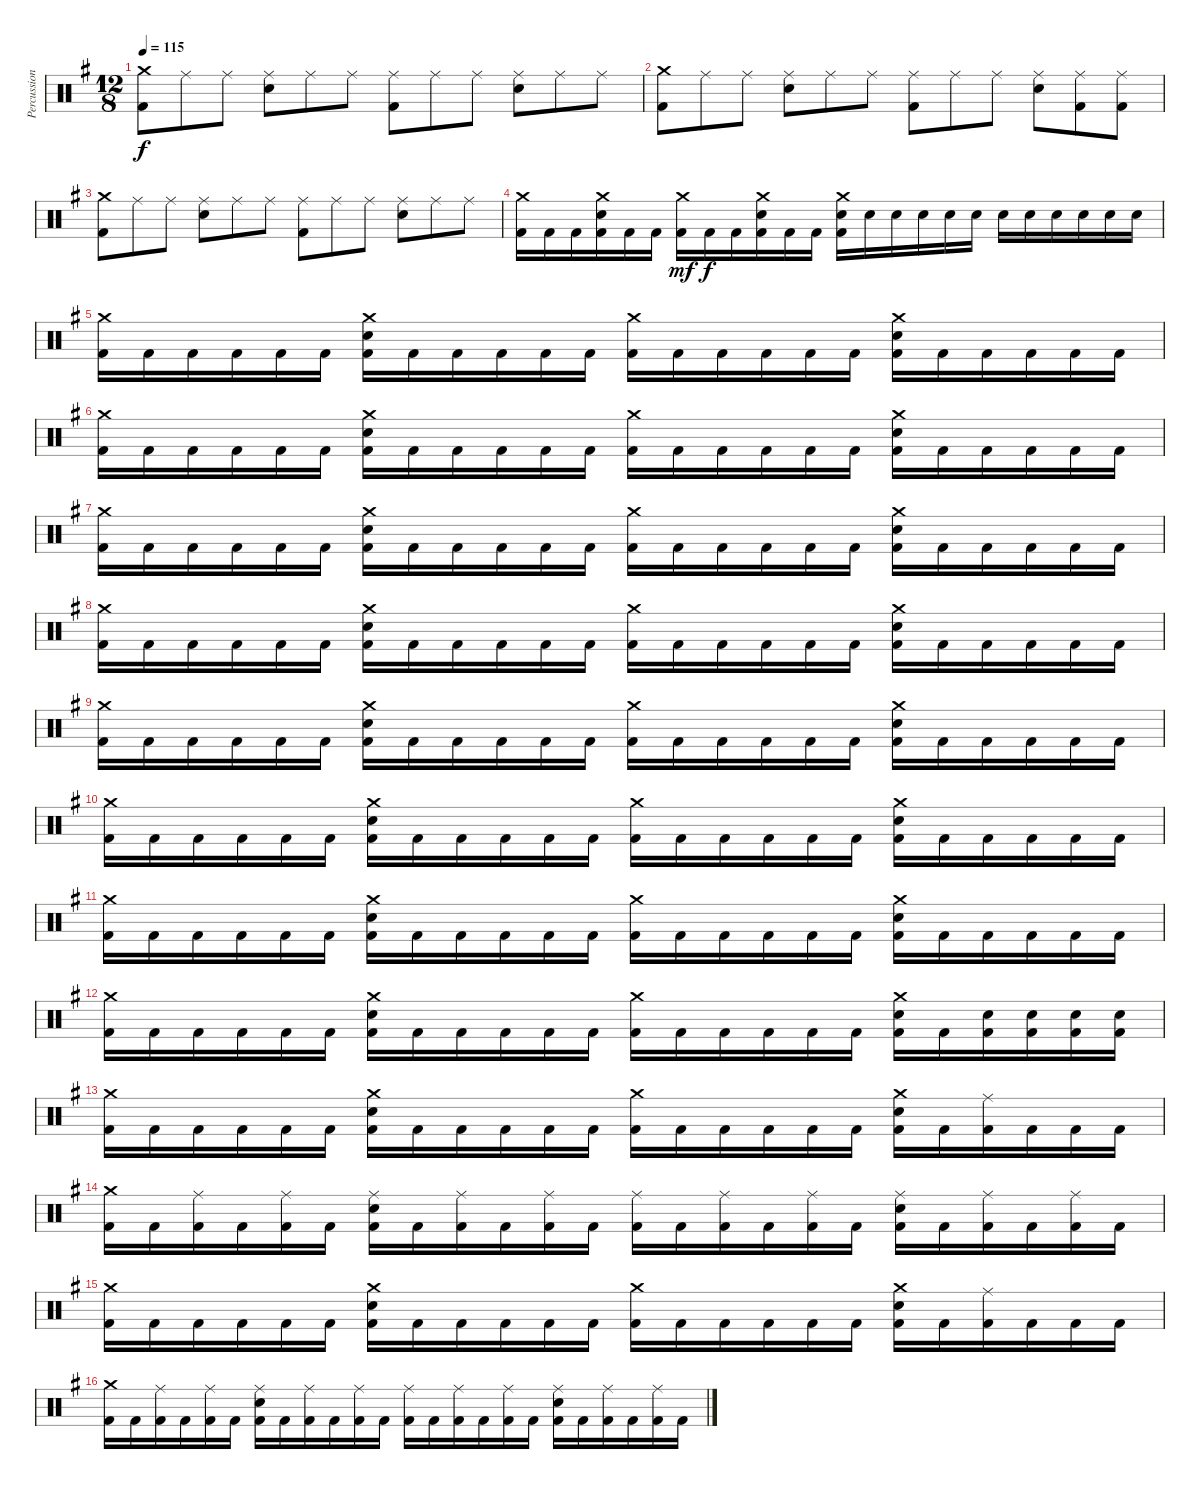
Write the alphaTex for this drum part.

\track ("Percussion" "Percussion") {instrument percussion}
\staff {score}
\articulation defaults
\ts (12 8)
\tempo 115
\clef neutral
\ks g
("Crash medium (hit)" "Kick (hit) 2").8{dy f} "Ride (middle)".8 "Ride (middle)".8 ("Ride (middle)" "Snare (hit) 2").8 "Ride (middle)".8 "Ride (middle)".8 ("Ride (middle)" "Kick (hit) 2").8 "Ride (middle)".8 "Ride (middle)".8 ("Ride (middle)" "Snare (hit) 2").8 "Ride (middle)".8 "Ride (middle)".8 |
("Crash medium (hit)" "Kick (hit) 2").8 "Ride (middle)".8 "Ride (middle)".8 ("Ride (middle)" "Snare (hit) 2").8 "Ride (middle)".8 "Ride (middle)".8 ("Ride (middle)" "Kick (hit) 2").8 "Ride (middle)".8 "Ride (middle)".8 ("Ride (middle)" "Snare (hit) 2").8 ("Ride (middle)" "Kick (hit) 2").8 ("Ride (middle)" "Kick (hit) 2").8 |
("Crash medium (hit)" "Kick (hit) 2").8 "Ride (middle)".8 "Ride (middle)".8 ("Ride (middle)" "Snare (hit) 2").8 "Ride (middle)".8 "Ride (middle)".8 ("Ride (middle)" "Kick (hit) 2").8 "Ride (middle)".8 "Ride (middle)".8 ("Ride (middle)" "Snare (hit) 2").8 "Ride (middle)".8 "Ride (middle)".8 |
("Crash medium (hit)" "Kick (hit) 2").16 "Kick (hit) 2".16 "Kick (hit) 2".16 ("Crash medium (hit)" "Snare (hit) 2" "Kick (hit) 2").16 "Kick (hit) 2".16 "Kick (hit) 2".16 ("Crash medium (hit)" "Kick (hit) 2").16{dy mf} "Kick (hit) 2".16{dy f} "Kick (hit) 2".16 ("Crash medium (hit)" "Snare (hit) 2" "Kick (hit) 2").16 "Kick (hit) 2".16 "Kick (hit) 2".16 ("Crash medium (hit)" "Snare (hit) 2" "Kick (hit) 2").16 "Snare (hit) 2".16 "Snare (hit) 2".16 "Snare (hit) 2".16 "Snare (hit) 2".16 "Snare (hit) 2".16 "Snare (hit) 2".16 "Snare (hit) 2".16 "Snare (hit) 2".16 "Snare (hit) 2".16 "Snare (hit) 2".16 "Snare (hit) 2".16 |
("Crash medium (hit)" "Kick (hit) 2").16 "Kick (hit) 2".16 "Kick (hit) 2".16 "Kick (hit) 2".16 "Kick (hit) 2".16 "Kick (hit) 2".16 ("Crash medium (hit)" "Snare (hit) 2" "Kick (hit) 2").16 "Kick (hit) 2".16 "Kick (hit) 2".16 "Kick (hit) 2".16 "Kick (hit) 2".16 "Kick (hit) 2".16 ("Crash medium (hit)" "Kick (hit) 2").16 "Kick (hit) 2".16 "Kick (hit) 2".16 "Kick (hit) 2".16 "Kick (hit) 2".16 "Kick (hit) 2".16 ("Crash medium (hit)" "Snare (hit) 2" "Kick (hit) 2").16 "Kick (hit) 2".16 "Kick (hit) 2".16 "Kick (hit) 2".16 "Kick (hit) 2".16 "Kick (hit) 2".16 |
("Crash medium (hit)" "Kick (hit) 2").16 "Kick (hit) 2".16 "Kick (hit) 2".16 "Kick (hit) 2".16 "Kick (hit) 2".16 "Kick (hit) 2".16 ("Crash medium (hit)" "Snare (hit) 2" "Kick (hit) 2").16 "Kick (hit) 2".16 "Kick (hit) 2".16 "Kick (hit) 2".16 "Kick (hit) 2".16 "Kick (hit) 2".16 ("Crash medium (hit)" "Kick (hit) 2").16 "Kick (hit) 2".16 "Kick (hit) 2".16 "Kick (hit) 2".16 "Kick (hit) 2".16 "Kick (hit) 2".16 ("Crash medium (hit)" "Snare (hit) 2" "Kick (hit) 2").16 "Kick (hit) 2".16 "Kick (hit) 2".16 "Kick (hit) 2".16 "Kick (hit) 2".16 "Kick (hit) 2".16 |
("Crash medium (hit)" "Kick (hit) 2").16 "Kick (hit) 2".16 "Kick (hit) 2".16 "Kick (hit) 2".16 "Kick (hit) 2".16 "Kick (hit) 2".16 ("Crash medium (hit)" "Snare (hit) 2" "Kick (hit) 2").16 "Kick (hit) 2".16 "Kick (hit) 2".16 "Kick (hit) 2".16 "Kick (hit) 2".16 "Kick (hit) 2".16 ("Crash medium (hit)" "Kick (hit) 2").16 "Kick (hit) 2".16 "Kick (hit) 2".16 "Kick (hit) 2".16 "Kick (hit) 2".16 "Kick (hit) 2".16 ("Crash medium (hit)" "Snare (hit) 2" "Kick (hit) 2").16 "Kick (hit) 2".16 "Kick (hit) 2".16 "Kick (hit) 2".16 "Kick (hit) 2".16 "Kick (hit) 2".16 |
("Crash medium (hit)" "Kick (hit) 2").16 "Kick (hit) 2".16 "Kick (hit) 2".16 "Kick (hit) 2".16 "Kick (hit) 2".16 "Kick (hit) 2".16 ("Crash medium (hit)" "Snare (hit) 2" "Kick (hit) 2").16 "Kick (hit) 2".16 "Kick (hit) 2".16 "Kick (hit) 2".16 "Kick (hit) 2".16 "Kick (hit) 2".16 ("Crash medium (hit)" "Kick (hit) 2").16 "Kick (hit) 2".16 "Kick (hit) 2".16 "Kick (hit) 2".16 "Kick (hit) 2".16 "Kick (hit) 2".16 ("Crash medium (hit)" "Snare (hit) 2" "Kick (hit) 2").16 "Kick (hit) 2".16 "Kick (hit) 2".16 "Kick (hit) 2".16 "Kick (hit) 2".16 "Kick (hit) 2".16 |
("Crash medium (hit)" "Kick (hit) 2").16 "Kick (hit) 2".16 "Kick (hit) 2".16 "Kick (hit) 2".16 "Kick (hit) 2".16 "Kick (hit) 2".16 ("Crash medium (hit)" "Snare (hit) 2" "Kick (hit) 2").16 "Kick (hit) 2".16 "Kick (hit) 2".16 "Kick (hit) 2".16 "Kick (hit) 2".16 "Kick (hit) 2".16 ("Crash medium (hit)" "Kick (hit) 2").16 "Kick (hit) 2".16 "Kick (hit) 2".16 "Kick (hit) 2".16 "Kick (hit) 2".16 "Kick (hit) 2".16 ("Crash medium (hit)" "Snare (hit) 2" "Kick (hit) 2").16 "Kick (hit) 2".16 "Kick (hit) 2".16 "Kick (hit) 2".16 "Kick (hit) 2".16 "Kick (hit) 2".16 |
("Crash medium (hit)" "Kick (hit) 2").16 "Kick (hit) 2".16 "Kick (hit) 2".16 "Kick (hit) 2".16 "Kick (hit) 2".16 "Kick (hit) 2".16 ("Crash medium (hit)" "Snare (hit) 2" "Kick (hit) 2").16 "Kick (hit) 2".16 "Kick (hit) 2".16 "Kick (hit) 2".16 "Kick (hit) 2".16 "Kick (hit) 2".16 ("Crash medium (hit)" "Kick (hit) 2").16 "Kick (hit) 2".16 "Kick (hit) 2".16 "Kick (hit) 2".16 "Kick (hit) 2".16 "Kick (hit) 2".16 ("Crash medium (hit)" "Snare (hit) 2" "Kick (hit) 2").16 "Kick (hit) 2".16 "Kick (hit) 2".16 "Kick (hit) 2".16 "Kick (hit) 2".16 "Kick (hit) 2".16 |
("Crash medium (hit)" "Kick (hit) 2").16 "Kick (hit) 2".16 "Kick (hit) 2".16 "Kick (hit) 2".16 "Kick (hit) 2".16 "Kick (hit) 2".16 ("Crash medium (hit)" "Snare (hit) 2" "Kick (hit) 2").16 "Kick (hit) 2".16 "Kick (hit) 2".16 "Kick (hit) 2".16 "Kick (hit) 2".16 "Kick (hit) 2".16 ("Crash medium (hit)" "Kick (hit) 2").16 "Kick (hit) 2".16 "Kick (hit) 2".16 "Kick (hit) 2".16 "Kick (hit) 2".16 "Kick (hit) 2".16 ("Crash medium (hit)" "Snare (hit) 2" "Kick (hit) 2").16 "Kick (hit) 2".16 "Kick (hit) 2".16 "Kick (hit) 2".16 "Kick (hit) 2".16 "Kick (hit) 2".16 |
("Crash medium (hit)" "Kick (hit) 2").16 "Kick (hit) 2".16 "Kick (hit) 2".16 "Kick (hit) 2".16 "Kick (hit) 2".16 "Kick (hit) 2".16 ("Crash medium (hit)" "Snare (hit) 2" "Kick (hit) 2").16 "Kick (hit) 2".16 "Kick (hit) 2".16 "Kick (hit) 2".16 "Kick (hit) 2".16 "Kick (hit) 2".16 ("Crash medium (hit)" "Kick (hit) 2").16 "Kick (hit) 2".16 "Kick (hit) 2".16 "Kick (hit) 2".16 "Kick (hit) 2".16 "Kick (hit) 2".16 ("Crash medium (hit)" "Snare (hit) 2" "Kick (hit) 2").16 "Kick (hit) 2".16 ("Electric Snare (hit)" "Kick (hit) 2").16 ("Electric Snare (hit)" "Kick (hit) 2").16 ("Electric Snare (hit)" "Kick (hit) 2").16 ("Electric Snare (hit)" "Kick (hit) 2").16 |
("Crash medium (hit)" "Kick (hit) 2").16 "Kick (hit) 2".16 "Kick (hit) 2".16 "Kick (hit) 2".16 "Kick (hit) 2".16 "Kick (hit) 2".16 ("Crash medium (hit)" "Snare (hit) 2" "Kick (hit) 2").16 "Kick (hit) 2".16 "Kick (hit) 2".16 "Kick (hit) 2".16 "Kick (hit) 2".16 "Kick (hit) 2".16 ("Crash medium (hit)" "Kick (hit) 2").16 "Kick (hit) 2".16 "Kick (hit) 2".16 "Kick (hit) 2".16 "Kick (hit) 2".16 "Kick (hit) 2".16 ("Crash medium (hit)" "Snare (hit) 2" "Kick (hit) 2").16 "Kick (hit) 2".16 ("Ride (middle)" "Kick (hit) 2").16 "Kick (hit) 2".16 "Kick (hit) 2".16 "Kick (hit) 2".16 |
("Crash medium (hit)" "Kick (hit) 2").16 "Kick (hit) 2".16 ("Ride (middle)" "Kick (hit) 2").16 "Kick (hit) 2".16 ("Ride (middle)" "Kick (hit) 2").16 "Kick (hit) 2".16 ("Ride (middle)" "Snare (hit) 2" "Kick (hit) 2").16 "Kick (hit) 2".16 ("Ride (middle)" "Kick (hit) 2").16 "Kick (hit) 2".16 ("Ride (middle)" "Kick (hit) 2").16 "Kick (hit) 2".16 ("Ride (middle)" "Kick (hit) 2").16 "Kick (hit) 2".16 ("Ride (middle)" "Kick (hit) 2").16 "Kick (hit) 2".16 ("Ride (middle)" "Kick (hit) 2").16 "Kick (hit) 2".16 ("Ride (middle)" "Snare (hit) 2" "Kick (hit) 2").16 "Kick (hit) 2".16 ("Ride (middle)" "Kick (hit) 2").16 "Kick (hit) 2".16 ("Ride (middle)" "Kick (hit) 2").16 "Kick (hit) 2".16 |
("Crash medium (hit)" "Kick (hit) 2").16 "Kick (hit) 2".16 "Kick (hit) 2".16 "Kick (hit) 2".16 "Kick (hit) 2".16 "Kick (hit) 2".16 ("Crash medium (hit)" "Snare (hit) 2" "Kick (hit) 2").16 "Kick (hit) 2".16 "Kick (hit) 2".16 "Kick (hit) 2".16 "Kick (hit) 2".16 "Kick (hit) 2".16 ("Crash medium (hit)" "Kick (hit) 2").16 "Kick (hit) 2".16 "Kick (hit) 2".16 "Kick (hit) 2".16 "Kick (hit) 2".16 "Kick (hit) 2".16 ("Crash medium (hit)" "Snare (hit) 2" "Kick (hit) 2").16 "Kick (hit) 2".16 ("Ride (middle)" "Kick (hit) 2").16 "Kick (hit) 2".16 "Kick (hit) 2".16 "Kick (hit) 2".16 |
("Crash medium (hit)" "Kick (hit) 2").16 "Kick (hit) 2".16 ("Ride (middle)" "Kick (hit) 2").16 "Kick (hit) 2".16 ("Ride (middle)" "Kick (hit) 2").16 "Kick (hit) 2".16 ("Ride (middle)" "Snare (hit) 2" "Kick (hit) 2").16 "Kick (hit) 2".16 ("Ride (middle)" "Kick (hit) 2").16 "Kick (hit) 2".16 ("Ride (middle)" "Kick (hit) 2").16 "Kick (hit) 2".16 ("Ride (middle)" "Kick (hit) 2").16 "Kick (hit) 2".16 ("Ride (middle)" "Kick (hit) 2").16 "Kick (hit) 2".16 ("Ride (middle)" "Kick (hit) 2").16 "Kick (hit) 2".16 ("Ride (middle)" "Snare (hit) 2" "Kick (hit) 2").16 "Kick (hit) 2".16 ("Ride (middle)" "Kick (hit) 2").16 "Kick (hit) 2".16 ("Ride (middle)" "Kick (hit) 2").16 "Kick (hit) 2".16
